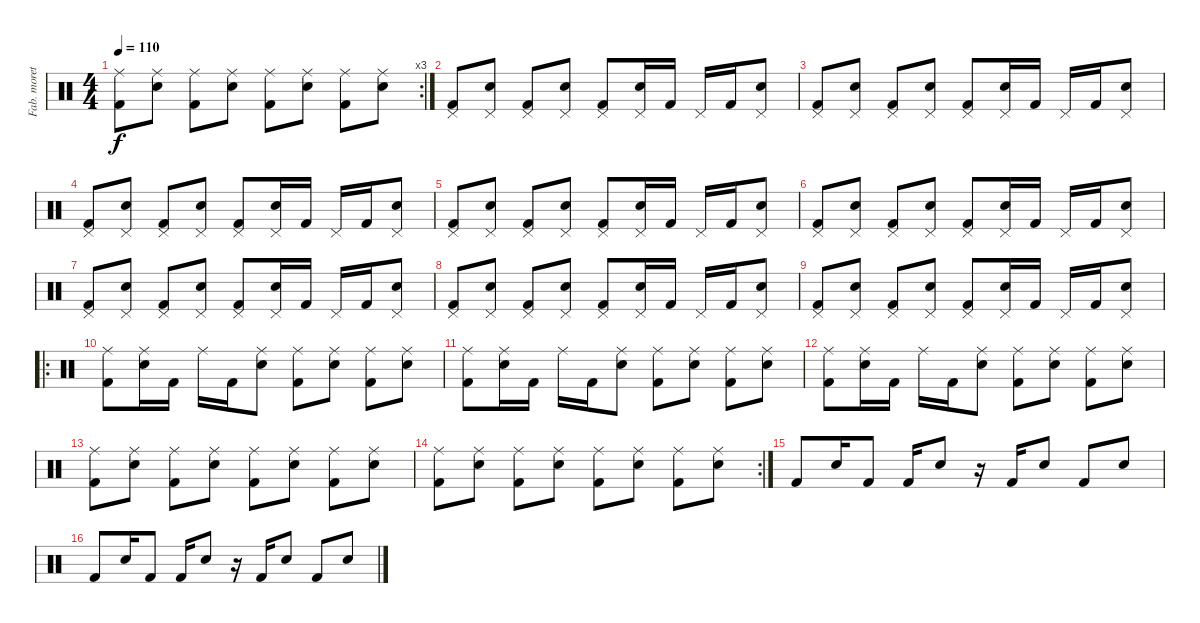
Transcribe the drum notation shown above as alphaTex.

\track ("Fab. moretti" "Fab. moret") {instrument percussion}
\staff {score}
\articulation defaults
\rc 3
\ts (4 4)
\tempo 110
\clef neutral
\ks c
("Ride (middle)" "Kick (hit) 2").8{dy f} ("Ride (middle)" "Electric Snare (hit)").8 ("Ride (middle)" "Kick (hit) 2").8 ("Ride (middle)" "Electric Snare (hit)").8 ("Ride (middle)" "Kick (hit) 2").8 ("Ride (middle)" "Electric Snare (hit)").8 ("Ride (middle)" "Kick (hit) 2").8 ("Ride (middle)" "Electric Snare (hit)").8 |
("Pedal Hi-Hat (hit)" "Kick (hit) 2").8 ("Pedal Hi-Hat (hit)" "Electric Snare (hit)").8 ("Pedal Hi-Hat (hit)" "Kick (hit) 2").8 ("Pedal Hi-Hat (hit)" "Electric Snare (hit)").8 ("Pedal Hi-Hat (hit)" "Kick (hit) 2").8 ("Pedal Hi-Hat (hit)" "Electric Snare (hit)").16 "Kick (hit) 2".16 "Pedal Hi-Hat (hit)".16 "Kick (hit) 2".16 ("Pedal Hi-Hat (hit)" "Electric Snare (hit)").8 |
("Pedal Hi-Hat (hit)" "Kick (hit) 2").8 ("Pedal Hi-Hat (hit)" "Electric Snare (hit)").8 ("Pedal Hi-Hat (hit)" "Kick (hit) 2").8 ("Pedal Hi-Hat (hit)" "Electric Snare (hit)").8 ("Pedal Hi-Hat (hit)" "Kick (hit) 2").8 ("Pedal Hi-Hat (hit)" "Electric Snare (hit)").16 "Kick (hit) 2".16 "Pedal Hi-Hat (hit)".16 "Kick (hit) 2".16 ("Pedal Hi-Hat (hit)" "Electric Snare (hit)").8 |
("Pedal Hi-Hat (hit)" "Kick (hit) 2").8 ("Pedal Hi-Hat (hit)" "Electric Snare (hit)").8 ("Pedal Hi-Hat (hit)" "Kick (hit) 2").8 ("Pedal Hi-Hat (hit)" "Electric Snare (hit)").8 ("Pedal Hi-Hat (hit)" "Kick (hit) 2").8 ("Pedal Hi-Hat (hit)" "Electric Snare (hit)").16 "Kick (hit) 2".16 "Pedal Hi-Hat (hit)".16 "Kick (hit) 2".16 ("Pedal Hi-Hat (hit)" "Electric Snare (hit)").8 |
("Pedal Hi-Hat (hit)" "Kick (hit) 2").8 ("Pedal Hi-Hat (hit)" "Electric Snare (hit)").8 ("Pedal Hi-Hat (hit)" "Kick (hit) 2").8 ("Pedal Hi-Hat (hit)" "Electric Snare (hit)").8 ("Pedal Hi-Hat (hit)" "Kick (hit) 2").8 ("Pedal Hi-Hat (hit)" "Electric Snare (hit)").16 "Kick (hit) 2".16 "Pedal Hi-Hat (hit)".16 "Kick (hit) 2".16 ("Pedal Hi-Hat (hit)" "Electric Snare (hit)").8 |
("Pedal Hi-Hat (hit)" "Kick (hit) 2").8 ("Pedal Hi-Hat (hit)" "Electric Snare (hit)").8 ("Pedal Hi-Hat (hit)" "Kick (hit) 2").8 ("Pedal Hi-Hat (hit)" "Electric Snare (hit)").8 ("Pedal Hi-Hat (hit)" "Kick (hit) 2").8 ("Pedal Hi-Hat (hit)" "Electric Snare (hit)").16 "Kick (hit) 2".16 "Pedal Hi-Hat (hit)".16 "Kick (hit) 2".16 ("Pedal Hi-Hat (hit)" "Electric Snare (hit)").8 |
("Pedal Hi-Hat (hit)" "Kick (hit) 2").8 ("Pedal Hi-Hat (hit)" "Electric Snare (hit)").8 ("Pedal Hi-Hat (hit)" "Kick (hit) 2").8 ("Pedal Hi-Hat (hit)" "Electric Snare (hit)").8 ("Pedal Hi-Hat (hit)" "Kick (hit) 2").8 ("Pedal Hi-Hat (hit)" "Electric Snare (hit)").16 "Kick (hit) 2".16 "Pedal Hi-Hat (hit)".16 "Kick (hit) 2".16 ("Pedal Hi-Hat (hit)" "Electric Snare (hit)").8 |
("Pedal Hi-Hat (hit)" "Kick (hit) 2").8 ("Pedal Hi-Hat (hit)" "Electric Snare (hit)").8 ("Pedal Hi-Hat (hit)" "Kick (hit) 2").8 ("Pedal Hi-Hat (hit)" "Electric Snare (hit)").8 ("Pedal Hi-Hat (hit)" "Kick (hit) 2").8 ("Pedal Hi-Hat (hit)" "Electric Snare (hit)").16 "Kick (hit) 2".16 "Pedal Hi-Hat (hit)".16 "Kick (hit) 2".16 ("Pedal Hi-Hat (hit)" "Electric Snare (hit)").8 |
("Pedal Hi-Hat (hit)" "Kick (hit) 2").8 ("Pedal Hi-Hat (hit)" "Electric Snare (hit)").8 ("Pedal Hi-Hat (hit)" "Kick (hit) 2").8 ("Pedal Hi-Hat (hit)" "Electric Snare (hit)").8 ("Pedal Hi-Hat (hit)" "Kick (hit) 2").8 ("Pedal Hi-Hat (hit)" "Electric Snare (hit)").16 "Kick (hit) 2".16 "Pedal Hi-Hat (hit)".16 "Kick (hit) 2".16 ("Pedal Hi-Hat (hit)" "Electric Snare (hit)").8 |
\ro
("Ride (middle)" "Kick (hit) 2").8 ("Ride (middle)" "Electric Snare (hit)").16 "Kick (hit) 2".16 "Ride (middle)".16 "Kick (hit) 2".16 ("Ride (middle)" "Electric Snare (hit)").8 ("Ride (middle)" "Kick (hit) 2").8 ("Ride (middle)" "Electric Snare (hit)").8 ("Ride (middle)" "Kick (hit) 2").8 ("Ride (middle)" "Electric Snare (hit)").8 |
("Ride (middle)" "Kick (hit) 2").8 ("Ride (middle)" "Electric Snare (hit)").16 "Kick (hit) 2".16 "Ride (middle)".16 "Kick (hit) 2".16 ("Ride (middle)" "Electric Snare (hit)").8 ("Ride (middle)" "Kick (hit) 2").8 ("Ride (middle)" "Electric Snare (hit)").8 ("Ride (middle)" "Kick (hit) 2").8 ("Ride (middle)" "Electric Snare (hit)").8 |
("Ride (middle)" "Kick (hit) 2").8 ("Ride (middle)" "Electric Snare (hit)").16 "Kick (hit) 2".16 "Ride (middle)".16 "Kick (hit) 2".16 ("Ride (middle)" "Electric Snare (hit)").8 ("Ride (middle)" "Kick (hit) 2").8 ("Ride (middle)" "Electric Snare (hit)").8 ("Ride (middle)" "Kick (hit) 2").8 ("Ride (middle)" "Electric Snare (hit)").8 |
("Ride (middle)" "Kick (hit) 2").8 ("Ride (middle)" "Electric Snare (hit)").8 ("Ride (middle)" "Kick (hit) 2").8 ("Ride (middle)" "Electric Snare (hit)").8 ("Ride (middle)" "Kick (hit) 2").8 ("Ride (middle)" "Electric Snare (hit)").8 ("Ride (middle)" "Kick (hit) 2").8 ("Ride (middle)" "Electric Snare (hit)").8 |
\rc 2
("Ride (middle)" "Kick (hit) 2").8 ("Ride (middle)" "Electric Snare (hit)").8 ("Ride (middle)" "Kick (hit) 2").8 ("Ride (middle)" "Electric Snare (hit)").8 ("Ride (middle)" "Kick (hit) 2").8 ("Ride (middle)" "Electric Snare (hit)").8 ("Ride (middle)" "Kick (hit) 2").8 ("Ride (middle)" "Electric Snare (hit)").8 |
"Kick (hit) 2".8 "Electric Snare (hit)".16 "Kick (hit) 2".8 "Kick (hit) 2".16 "Electric Snare (hit)".8 r.16 "Kick (hit) 2".16 "Electric Snare (hit)".8 "Kick (hit) 2".8 "Electric Snare (hit)".8 |
"Kick (hit) 2".8 "Electric Snare (hit)".16 "Kick (hit) 2".8 "Kick (hit) 2".16 "Electric Snare (hit)".8 r.16 "Kick (hit) 2".16 "Electric Snare (hit)".8 "Kick (hit) 2".8 "Electric Snare (hit)".8
